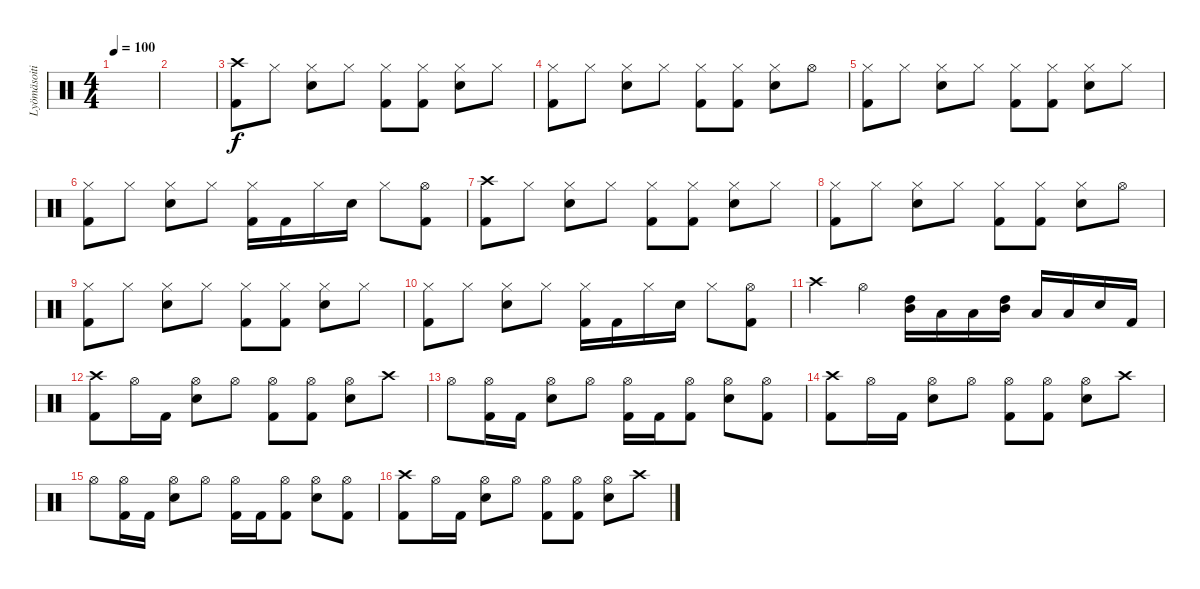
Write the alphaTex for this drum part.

\track ("Lyömäsoitin" "Lyömäsoiti") {instrument percussion}
\staff {score}
\articulation defaults
\ts (4 4)
\tempo 100
\clef neutral
\ks c
|
|
("Crash high (hit)" "Kick (hit) 2").8 "Hi-Hat (closed)".8 ("Hi-Hat (closed)" "Snare (hit) 2").8 "Hi-Hat (closed)".8 ("Hi-Hat (closed)" "Kick (hit) 2").8 ("Hi-Hat (closed)" "Kick (hit) 2").8 ("Hi-Hat (closed)" "Snare (hit) 2").8 "Hi-Hat (closed)".8 |
("Hi-Hat (closed)" "Kick (hit) 2").8 "Hi-Hat (closed)".8 ("Hi-Hat (closed)" "Snare (hit) 2").8 "Hi-Hat (closed)".8 ("Hi-Hat (closed)" "Kick (hit) 2").8 ("Hi-Hat (closed)" "Kick (hit) 2").8 ("Hi-Hat (closed)" "Snare (hit) 2").8 "Hi-Hat (open)".8 |
("Hi-Hat (closed)" "Kick (hit) 2").8 "Hi-Hat (closed)".8 ("Hi-Hat (closed)" "Snare (hit) 2").8 "Hi-Hat (closed)".8 ("Hi-Hat (closed)" "Kick (hit) 2").8 ("Hi-Hat (closed)" "Kick (hit) 2").8 ("Hi-Hat (closed)" "Snare (hit) 2").8 "Hi-Hat (closed)".8 |
("Hi-Hat (closed)" "Kick (hit) 2").8 "Hi-Hat (closed)".8 ("Hi-Hat (closed)" "Snare (hit) 2").8 "Hi-Hat (closed)".8 ("Hi-Hat (closed)" "Kick (hit) 2").16 "Kick (hit) 2".16 "Hi-Hat (closed)".16 "Snare (hit) 2".16 "Hi-Hat (closed)".8 ("Hi-Hat (open)" "Kick (hit) 2").8 |
("Crash high (hit)" "Kick (hit) 2").8 "Hi-Hat (closed)".8 ("Hi-Hat (closed)" "Snare (hit) 2").8 "Hi-Hat (closed)".8 ("Hi-Hat (closed)" "Kick (hit) 2").8 ("Hi-Hat (closed)" "Kick (hit) 2").8 ("Hi-Hat (closed)" "Snare (hit) 2").8 "Hi-Hat (closed)".8 |
("Hi-Hat (closed)" "Kick (hit) 2").8 "Hi-Hat (closed)".8 ("Hi-Hat (closed)" "Snare (hit) 2").8 "Hi-Hat (closed)".8 ("Hi-Hat (closed)" "Kick (hit) 2").8 ("Hi-Hat (closed)" "Kick (hit) 2").8 ("Hi-Hat (closed)" "Snare (hit) 2").8 "Hi-Hat (open)".8 |
("Hi-Hat (closed)" "Kick (hit) 2").8 "Hi-Hat (closed)".8 ("Hi-Hat (closed)" "Snare (hit) 2").8 "Hi-Hat (closed)".8 ("Hi-Hat (closed)" "Kick (hit) 2").8 ("Hi-Hat (closed)" "Kick (hit) 2").8 ("Hi-Hat (closed)" "Snare (hit) 2").8 "Hi-Hat (closed)".8 |
("Hi-Hat (closed)" "Kick (hit) 2").8 "Hi-Hat (closed)".8 ("Hi-Hat (closed)" "Snare (hit) 2").8 "Hi-Hat (closed)".8 ("Hi-Hat (closed)" "Kick (hit) 2").16 "Kick (hit) 2".16 "Hi-Hat (closed)".16 "Snare (hit) 2".16 "Hi-Hat (closed)".8 ("Hi-Hat (open)" "Kick (hit) 2").8 |
"Crash high (hit)".4 "Hi-Hat (open)".4 ("High Tom (hit)" "Mid Tom (hit)").16 "Low Tom (hit)".16 "Low Tom (hit)".16 ("High Tom (hit)" "Mid Tom (hit)").16 "Low Tom (hit)".16 "Low Tom (hit)".16 "Snare (hit) 2".16 "Kick (hit) 2".16 |
("Crash high (hit)" "Kick (hit) 2").8 "Hi-Hat (open)".16 "Kick (hit) 2".16 ("Hi-Hat (open)" "Snare (hit) 2").8 "Hi-Hat (open)".8 ("Hi-Hat (open)" "Kick (hit) 2").8 ("Hi-Hat (open)" "Kick (hit) 2").8 ("Hi-Hat (open)" "Snare (hit) 2").8 "Crash high (hit)".8 |
"Hi-Hat (open)".8 ("Hi-Hat (open)" "Kick (hit) 2").16 "Kick (hit) 2".16 ("Hi-Hat (open)" "Snare (hit) 2").8 "Hi-Hat (open)".8 ("Hi-Hat (open)" "Kick (hit) 2").16 "Kick (hit) 2".16 ("Hi-Hat (open)" "Kick (hit) 2").8 ("Hi-Hat (open)" "Snare (hit) 2").8 ("Hi-Hat (open)" "Kick (hit) 2").8 |
("Crash high (hit)" "Kick (hit) 2").8 "Hi-Hat (open)".16 "Kick (hit) 2".16 ("Hi-Hat (open)" "Snare (hit) 2").8 "Hi-Hat (open)".8 ("Hi-Hat (open)" "Kick (hit) 2").8 ("Hi-Hat (open)" "Kick (hit) 2").8 ("Hi-Hat (open)" "Snare (hit) 2").8 "Crash high (hit)".8 |
"Hi-Hat (open)".8 ("Hi-Hat (open)" "Kick (hit) 2").16 "Kick (hit) 2".16 ("Hi-Hat (open)" "Snare (hit) 2").8 "Hi-Hat (open)".8 ("Hi-Hat (open)" "Kick (hit) 2").16 "Kick (hit) 2".16 ("Hi-Hat (open)" "Kick (hit) 2").8 ("Hi-Hat (open)" "Snare (hit) 2").8 ("Hi-Hat (open)" "Kick (hit) 2").8 |
("Crash high (hit)" "Kick (hit) 2").8 "Hi-Hat (open)".16 "Kick (hit) 2".16 ("Hi-Hat (open)" "Snare (hit) 2").8 "Hi-Hat (open)".8 ("Hi-Hat (open)" "Kick (hit) 2").8 ("Hi-Hat (open)" "Kick (hit) 2").8 ("Hi-Hat (open)" "Snare (hit) 2").8 "Crash high (hit)".8
